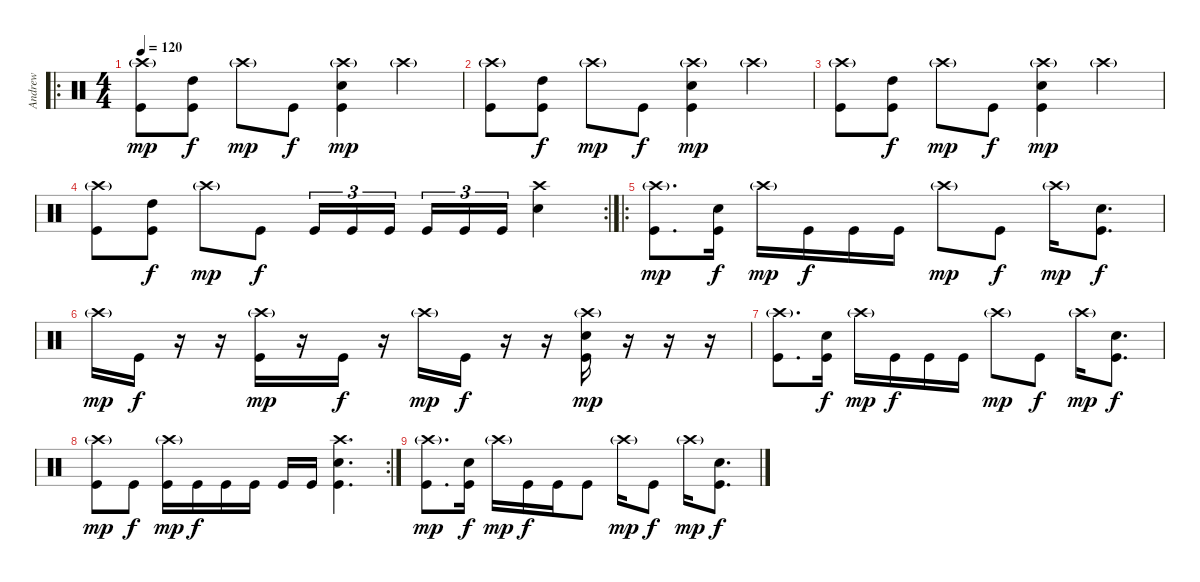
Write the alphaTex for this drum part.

\track ("Andrew" "Andrew") {instrument percussion}
\staff {score}
\articulation defaults
\ro
\ts (4 4)
\tempo 120
\clef neutral
\ks c
("Crash high (hit)"{g} "Kick (hit)").8{dy mp} ("High Tom (hit)" "Kick (hit)").8{dy f} "Crash high (hit)"{g}.8{dy mp} "Kick (hit)".8{dy f} ("Crash high (hit)"{g} "Snare (hit) 2" "Kick (hit)").4{dy mp} "Crash high (hit)"{g}.4 |
("Crash high (hit)"{g} "Kick (hit)").8 ("High Tom (hit)" "Kick (hit)").8{dy f} "Crash high (hit)"{g}.8{dy mp} "Kick (hit)".8{dy f} ("Crash high (hit)"{g} "Snare (hit) 2" "Kick (hit)").4{dy mp} "Crash high (hit)"{g}.4 |
("Crash high (hit)"{g} "Kick (hit)").8 ("High Tom (hit)" "Kick (hit)").8{dy f} "Crash high (hit)"{g}.8{dy mp} "Kick (hit)".8{dy f} ("Crash high (hit)"{g} "Snare (hit) 2" "Kick (hit)").4{dy mp} "Crash high (hit)"{g}.4 |
\rc 2
("Crash high (hit)"{g} "Kick (hit)").8 ("High Tom (hit)" "Kick (hit)").8{dy f} "Crash high (hit)"{g}.8{dy mp} "Kick (hit)".8{dy f} "Kick (hit)".16{tu (3 2)} "Kick (hit)".16{tu (3 2)} "Kick (hit)".16{tu (3 2) beam splitsecondary} "Kick (hit)".16{tu (3 2)} "Kick (hit)".16{tu (3 2)} "Kick (hit)".16{tu (3 2)} ("Crash high (hit)" "Snare (hit) 2").4 |
\ro
("Crash high (hit)"{g} "Kick (hit)").8{d dy mp} ("Snare (hit) 2" "Kick (hit)").16{dy f} "Crash high (hit)"{g}.16{dy mp} "Kick (hit)".16{dy f} "Kick (hit)".16 "Kick (hit)".16 "Crash high (hit)"{g}.8{dy mp} "Kick (hit)".8{dy f} "Crash high (hit)"{g}.16{dy mp} ("Snare (hit) 2" "Kick (hit)").8{d dy f} |
"Crash high (hit)"{g}.16{dy mp} "Kick (hit)".16{dy f} r.16 r.16 ("Crash high (hit)"{g} "Kick (hit)").16{dy mp} r.16 "Kick (hit)".16{dy f} r.16 "Crash high (hit)"{g}.16{dy mp} "Kick (hit)".16{dy f} r.16 r.16 ("Crash high (hit)"{g} "Snare (hit) 2" "Kick (hit)").16{dy mp} r.16 r.16 r.16 |
("Crash high (hit)"{g} "Kick (hit)").8{d} ("Snare (hit) 2" "Kick (hit)").16{dy f} "Crash high (hit)"{g}.16{dy mp} "Kick (hit)".16{dy f} "Kick (hit)".16 "Kick (hit)".16 "Crash high (hit)"{g}.8{dy mp} "Kick (hit)".8{dy f} "Crash high (hit)"{g}.16{dy mp} ("Snare (hit) 2" "Kick (hit)").8{d dy f} |
\rc 2
("Crash high (hit)"{g} "Kick (hit)").8{dy mp} "Kick (hit)".8{dy f} ("Crash high (hit)"{g} "Kick (hit)").16{dy mp} "Kick (hit)".16{dy f} "Kick (hit)".16 "Kick (hit)".16 "Kick (hit)".16 "Kick (hit)".16 ("Crash high (hit)" "Snare (hit) 2" "Kick (hit)").4{d} |
("Crash high (hit)"{g} "Kick (hit)").8{d dy mp} ("Snare (hit) 2" "Kick (hit)").16{dy f} "Crash high (hit)"{g}.16{dy mp} "Kick (hit)".16{dy f} "Kick (hit)".16 "Kick (hit)".8 "Crash high (hit)"{g}.16{dy mp} "Kick (hit)".8{dy f} "Crash high (hit)"{g}.16{dy mp} ("Snare (hit) 2" "Kick (hit)").8{d dy f}
